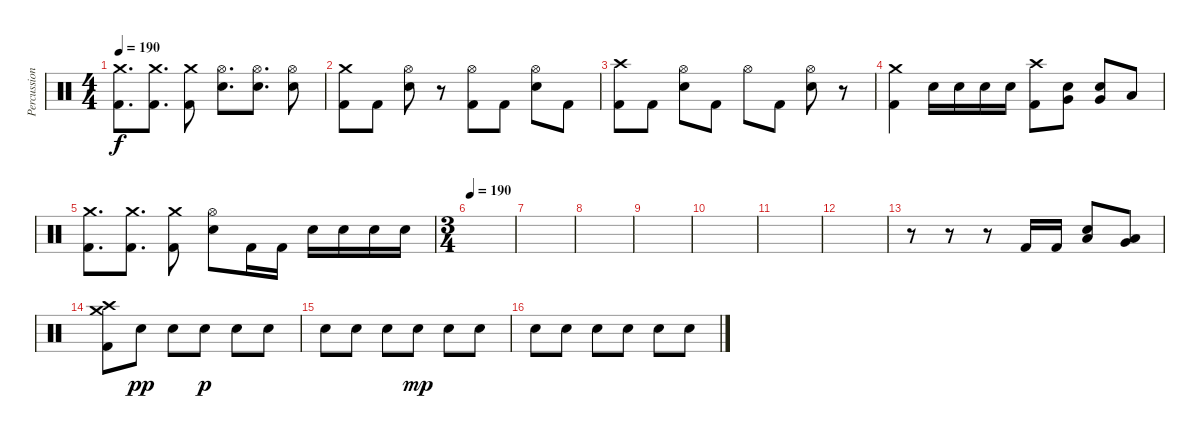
\track ("Percussion" "Percussion") {instrument percussion}
\staff {score}
\articulation defaults
\ts (4 4)
\tempo 190
\clef neutral
\ks c
("Crash medium (hit)" "Kick (hit) 2").8{d dy f} ("Crash medium (hit)" "Kick (hit) 2").8{d} ("Crash medium (hit)" "Kick (hit) 2").8 ("Hi-Hat (open)" "Electric Snare (hit)").8{d} ("Hi-Hat (open)" "Electric Snare (hit)").8{d} ("Hi-Hat (open)" "Electric Snare (hit)").8 |
("Crash medium (hit)" "Kick (hit) 2").8 "Kick (hit) 2".8 ("Hi-Hat (open)" "Electric Snare (hit)").8 r.8 ("Hi-Hat (open)" "Kick (hit) 2").8 "Kick (hit) 2".8 ("Hi-Hat (open)" "Electric Snare (hit)").8 "Kick (hit) 2".8 |
("Crash high (hit)" "Kick (hit) 2").8 "Kick (hit) 2".8 ("Hi-Hat (open)" "Electric Snare (hit)").8 "Kick (hit) 2".8 "Hi-Hat (open)".8 "Kick (hit) 2".8 ("Hi-Hat (open)" "Electric Snare (hit)").8 r.8 |
("Crash medium (hit)" "Kick (hit) 2").4 "Electric Snare (hit)".16 "Electric Snare (hit)".16 "Electric Snare (hit)".16 "Electric Snare (hit)".16 ("Crash high (hit)" "Kick (hit) 2").8 ("Very Low Tom (hit)" "Electric Snare (hit)").8 ("Very Low Tom (hit)" "Electric Snare (hit)").8 "Low Floor Tom (hit)".8 |
("Crash medium (hit)" "Kick (hit) 2").8{d} ("Crash medium (hit)" "Kick (hit) 2").8{d} ("Crash medium (hit)" "Kick (hit) 2").8 ("Hi-Hat (open)" "Electric Snare (hit)").8 "Kick (hit) 2".16 "Kick (hit) 2".16 "Electric Snare (hit)".16 "Electric Snare (hit)".16 "Electric Snare (hit)".16 "Electric Snare (hit)".16 |
\ts (3 4)
\tempo 190
|
|
|
|
|
|
|
r.8 r.8 r.8 "Kick (hit) 2".16 "Kick (hit) 2".16 ("Low Tom (hit)" "Electric Snare (hit)").8 ("Very Low Tom (hit)" "Low Floor Tom (hit)").8 |
("Crash medium (hit)" "Crash high (hit)" "Kick (hit) 2").8 "Electric Snare (hit)".8{dy pp} "Electric Snare (hit)".8 "Electric Snare (hit)".8{dy p} "Electric Snare (hit)".8 "Electric Snare (hit)".8 |
"Electric Snare (hit)".8 "Electric Snare (hit)".8 "Electric Snare (hit)".8 "Electric Snare (hit)".8{dy mp} "Electric Snare (hit)".8 "Electric Snare (hit)".8 |
"Electric Snare (hit)".8 "Electric Snare (hit)".8 "Electric Snare (hit)".8 "Electric Snare (hit)".8 "Electric Snare (hit)".8 "Electric Snare (hit)".8
